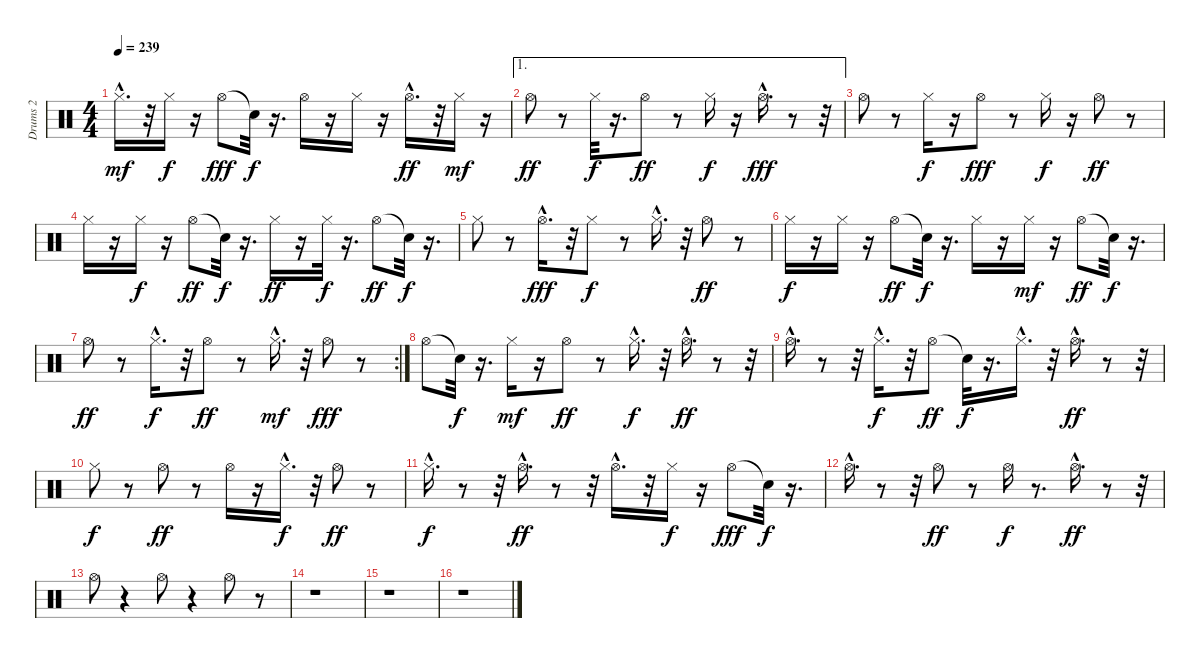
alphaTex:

\track ("Drums 2" "Drums 2") {instrument percussion}
\staff {score}
\articulation defaults
\ts (4 4)
\tempo 239
\clef neutral
\ks c "Hi-Hat (closed)"{hac}.16{d dy mf}
r.32 "Hi-Hat (closed)".16{dy f} r.16 "Hi-Hat (open)".8{dy fff} "Snare (hit)"{t}.32{dy f} r.16{d} "Hi-Hat (open)".16 r.16 "Hi-Hat (closed)".16 r.16 "Hi-Hat (open)"{hac}.16{d dy ff} r.32 "Hi-Hat (closed)".16{dy mf} r.16 |
\ae 1 "Hi-Hat (open)".8{dy ff}
r.8 "Hi-Hat (closed)".32{dy f} r.16{d} "Hi-Hat (open)".8{dy ff} r.8 "Hi-Hat (closed)".16{dy f} r.16 "Hi-Hat (open)"{hac}.16{d dy fff} r.8 r.32 |
"Hi-Hat (open)".8 r.8 "Hi-Hat (closed)".16{dy f} r.16 "Hi-Hat (open)".8{dy fff} r.8 "Hi-Hat (closed)".16{dy f} r.16 "Hi-Hat (open)".8{dy ff} r.8 |
"Hi-Hat (closed)".16 r.16 "Hi-Hat (closed)".16{dy f} r.16 "Hi-Hat (open)".8{dy ff} "Snare (hit)"{t}.32{dy f} r.16{d} "Hi-Hat (closed)".16{dy ff} r.16 "Hi-Hat (closed)".32{dy f} r.16{d} "Hi-Hat (open)".8{dy ff} "Snare (hit)"{t}.32{dy f} r.16{d} |
"Hi-Hat (closed)".8 r.8 "Hi-Hat (open)"{hac}.16{d dy fff} r.32 "Hi-Hat (closed)".8{dy f} r.8 "Hi-Hat (closed)"{hac}.16{d} r.32 "Hi-Hat (open)".8{dy ff} r.8 |
"Hi-Hat (closed)".16{dy f} r.16 "Hi-Hat (closed)".16 r.16 "Hi-Hat (open)".8{dy ff} "Snare (hit)"{t}.32{dy f} r.16{d} "Hi-Hat (closed)".16 r.16 "Hi-Hat (closed)".16{dy mf} r.16 "Hi-Hat (open)".8{dy ff} "Snare (hit)"{t}.32{dy f} r.16{d} |
\rc 2 "Hi-Hat (open)".8{dy ff}
r.8 "Hi-Hat (closed)"{hac}.16{d dy f} r.32 "Hi-Hat (open)".8{dy ff} r.8 "Hi-Hat (closed)"{hac}.16{d dy mf} r.32 "Hi-Hat (open)".8{dy fff} r.8 |
"Hi-Hat (open)".8 "Snare (hit)"{t}.32{dy f} r.16{d} "Hi-Hat (closed)".16{dy mf} r.16 "Hi-Hat (open)".8{dy ff} r.8 "Hi-Hat (closed)"{hac}.16{d dy f} r.32 "Hi-Hat (open)"{hac}.16{d dy ff} r.8 r.32 |
"Hi-Hat (open)"{hac}.16{d} r.8 r.32 "Hi-Hat (closed)"{hac}.16{d dy f} r.32 "Hi-Hat (open)".8{dy ff} "Snare (hit)"{t}.32{dy f} r.16{d} "Hi-Hat (closed)"{hac}.16{d} r.32 "Hi-Hat (open)"{hac}.16{d dy ff} r.8 r.32 |
"Hi-Hat (closed)".8{dy f} r.8 "Hi-Hat (open)".8{dy ff} r.8 "Hi-Hat (open)".16 r.16 "Hi-Hat (closed)"{hac}.16{d dy f} r.32 "Hi-Hat (open)".8{dy ff} r.8 |
"Hi-Hat (closed)"{hac}.16{d dy f} r.8 r.32 "Hi-Hat (open)"{hac}.16{d dy ff} r.8 r.32 "Hi-Hat (open)"{hac}.16{d} r.32 "Hi-Hat (closed)".16{dy f} r.16 "Hi-Hat (open)".8{dy fff} "Snare (hit)"{t}.32{dy f} r.16{d} |
"Hi-Hat (open)"{hac}.16{d} r.8 r.32 "Hi-Hat (open)".8{dy ff} r.8 "Hi-Hat (open)".16{dy f} r.8{d} "Hi-Hat (open)"{hac}.16{d dy ff} r.8 r.32 |
"Hi-Hat (open)".8 r.4 "Hi-Hat (open)".8 r.4 "Hi-Hat (open)".8 r.8 |
r.1 |
r.1 |
r.1
